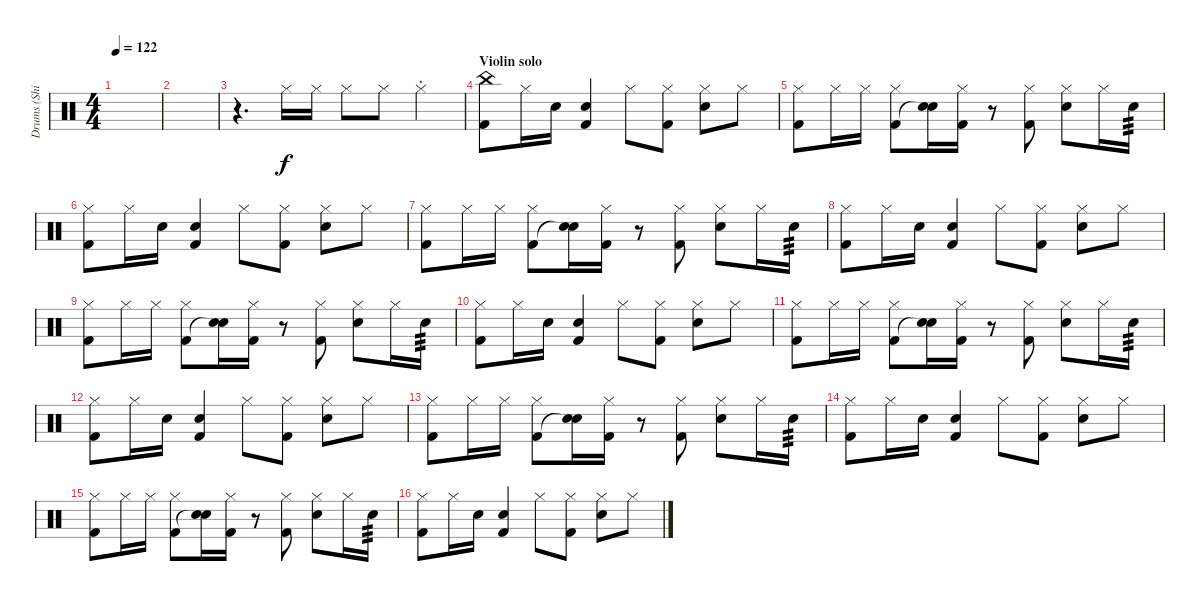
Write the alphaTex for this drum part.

\track ("Drums (Shinya)" "Drums (Shi") {instrument percussion}
\staff {score}
\articulation defaults
\ts (4 4)
\tempo 122
\clef neutral
\ks c
|
|
r.4{d} "Hi-Hat (closed)".16 "Hi-Hat (closed)".16 "Hi-Hat (closed)".8 "Hi-Hat (closed)".8 "Hi-Hat (closed)"{st}.4 |
\section ("" "Violin solo")
("China (hit)" "Kick (hit) 2").8 "Hi-Hat (closed)".16 "Snare (hit) 2".16 ("Snare (hit) 2" "Kick (hit) 2").4 "Hi-Hat (closed)".8 ("Hi-Hat (closed)" "Kick (hit) 2").8 ("Snare (hit) 2" "Hi-Hat (closed)").8 "Hi-Hat (closed)".8 |
("Hi-Hat (closed)" "Kick (hit) 2").8 "Hi-Hat (closed)".16 "Hi-Hat (closed)".16 ("Hi-Hat (closed)" "Kick (hit) 2").8 ("Snare (hit) 2" "Snare (hit)"{t}).16 ("Hi-Hat (closed)" "Kick (hit) 2").16 r.8 ("Hi-Hat (closed)" "Kick (hit) 2").8 ("Snare (hit) 2" "Hi-Hat (closed)").8 "Hi-Hat (closed)".16 "Snare (hit) 2".16{tp 3} |
("Hi-Hat (closed)" "Kick (hit) 2").8 "Hi-Hat (closed)".16 "Snare (hit) 2".16 ("Snare (hit) 2" "Kick (hit) 2").4 "Hi-Hat (closed)".8 ("Hi-Hat (closed)" "Kick (hit) 2").8 ("Snare (hit) 2" "Hi-Hat (closed)").8 "Hi-Hat (closed)".8 |
("Hi-Hat (closed)" "Kick (hit) 2").8 "Hi-Hat (closed)".16 "Hi-Hat (closed)".16 ("Hi-Hat (closed)" "Kick (hit) 2").8 ("Snare (hit) 2" "Snare (hit)"{t}).16 ("Hi-Hat (closed)" "Kick (hit) 2").16 r.8 ("Hi-Hat (closed)" "Kick (hit) 2").8 ("Snare (hit) 2" "Hi-Hat (closed)").8 "Hi-Hat (closed)".16 "Snare (hit) 2".16{tp 3} |
("Hi-Hat (closed)" "Kick (hit) 2").8 "Hi-Hat (closed)".16 "Snare (hit) 2".16 ("Snare (hit) 2" "Kick (hit) 2").4 "Hi-Hat (closed)".8 ("Hi-Hat (closed)" "Kick (hit) 2").8 ("Snare (hit) 2" "Hi-Hat (closed)").8 "Hi-Hat (closed)".8 |
("Hi-Hat (closed)" "Kick (hit) 2").8 "Hi-Hat (closed)".16 "Hi-Hat (closed)".16 ("Hi-Hat (closed)" "Kick (hit) 2").8 ("Snare (hit) 2" "Snare (hit)"{t}).16 ("Hi-Hat (closed)" "Kick (hit) 2").16 r.8 ("Hi-Hat (closed)" "Kick (hit) 2").8 ("Snare (hit) 2" "Hi-Hat (closed)").8 "Hi-Hat (closed)".16 "Snare (hit) 2".16{tp 3} |
("Hi-Hat (closed)" "Kick (hit) 2").8 "Hi-Hat (closed)".16 "Snare (hit) 2".16 ("Snare (hit) 2" "Kick (hit) 2").4 "Hi-Hat (closed)".8 ("Hi-Hat (closed)" "Kick (hit) 2").8 ("Snare (hit) 2" "Hi-Hat (closed)").8 "Hi-Hat (closed)".8 |
("Hi-Hat (closed)" "Kick (hit) 2").8 "Hi-Hat (closed)".16 "Hi-Hat (closed)".16 ("Hi-Hat (closed)" "Kick (hit) 2").8 ("Snare (hit) 2" "Snare (hit)"{t}).16 ("Hi-Hat (closed)" "Kick (hit) 2").16 r.8 ("Hi-Hat (closed)" "Kick (hit) 2").8 ("Snare (hit) 2" "Hi-Hat (closed)").8 "Hi-Hat (closed)".16 "Snare (hit) 2".16{tp 3} |
("Hi-Hat (closed)" "Kick (hit) 2").8 "Hi-Hat (closed)".16 "Snare (hit) 2".16 ("Snare (hit) 2" "Kick (hit) 2").4 "Hi-Hat (closed)".8 ("Hi-Hat (closed)" "Kick (hit) 2").8 ("Snare (hit) 2" "Hi-Hat (closed)").8 "Hi-Hat (closed)".8 |
("Hi-Hat (closed)" "Kick (hit) 2").8 "Hi-Hat (closed)".16 "Hi-Hat (closed)".16 ("Hi-Hat (closed)" "Kick (hit) 2").8 ("Snare (hit) 2" "Snare (hit)"{t}).16 ("Hi-Hat (closed)" "Kick (hit) 2").16 r.8 ("Hi-Hat (closed)" "Kick (hit) 2").8 ("Snare (hit) 2" "Hi-Hat (closed)").8 "Hi-Hat (closed)".16 "Snare (hit) 2".16{tp 3} |
("Hi-Hat (closed)" "Kick (hit) 2").8 "Hi-Hat (closed)".16 "Snare (hit) 2".16 ("Snare (hit) 2" "Kick (hit) 2").4 "Hi-Hat (closed)".8 ("Hi-Hat (closed)" "Kick (hit) 2").8 ("Snare (hit) 2" "Hi-Hat (closed)").8 "Hi-Hat (closed)".8 |
("Hi-Hat (closed)" "Kick (hit) 2").8 "Hi-Hat (closed)".16 "Hi-Hat (closed)".16 ("Hi-Hat (closed)" "Kick (hit) 2").8 ("Snare (hit) 2" "Snare (hit)"{t}).16 ("Hi-Hat (closed)" "Kick (hit) 2").16 r.8 ("Hi-Hat (closed)" "Kick (hit) 2").8 ("Snare (hit) 2" "Hi-Hat (closed)").8 "Hi-Hat (closed)".16 "Snare (hit) 2".16{tp 3} |
("Hi-Hat (closed)" "Kick (hit) 2").8 "Hi-Hat (closed)".16 "Snare (hit) 2".16 ("Snare (hit) 2" "Kick (hit) 2").4 "Hi-Hat (closed)".8 ("Hi-Hat (closed)" "Kick (hit) 2").8 ("Snare (hit) 2" "Hi-Hat (closed)").8 "Hi-Hat (closed)".8
